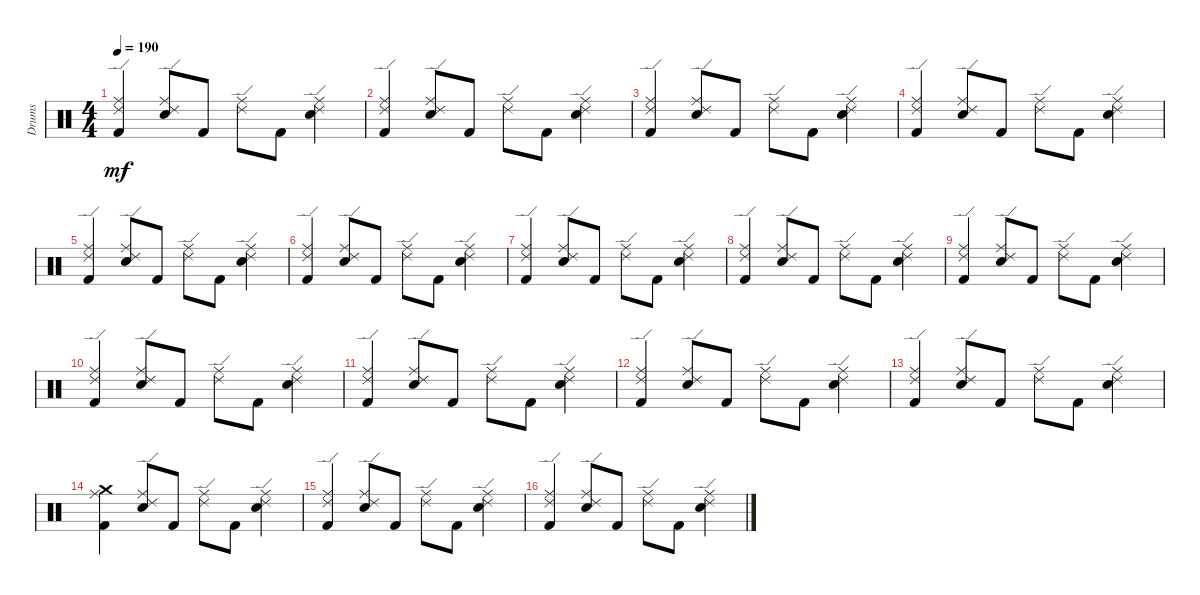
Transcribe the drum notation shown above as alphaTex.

\track ("Drums" "Drums") {instrument percussion}
\staff {score}
\articulation defaults
\ts (4 4)
\tempo 190
\clef neutral
\ks c
("Ride (edge) 2" "Ride (middle)" "Kick (hit) 2").4{dy mf} ("Ride (edge) 2" "Ride (middle)" "Snare (hit) 2").8 "Kick (hit) 2".8 ("Ride (edge) 2" "Ride (middle)").8 "Kick (hit) 2".8 ("Ride (edge) 2" "Ride (middle)" "Snare (hit) 2").4 |
("Ride (edge) 2" "Ride (middle)" "Kick (hit) 2").4 ("Ride (edge) 2" "Ride (middle)" "Snare (hit) 2").8 "Kick (hit) 2".8 ("Ride (edge) 2" "Ride (middle)").8 "Kick (hit) 2".8 ("Ride (edge) 2" "Ride (middle)" "Snare (hit) 2").4 |
("Ride (edge) 2" "Ride (middle)" "Kick (hit) 2").4 ("Ride (edge) 2" "Ride (middle)" "Snare (hit) 2").8 "Kick (hit) 2".8 ("Ride (edge) 2" "Ride (middle)").8 "Kick (hit) 2".8 ("Ride (edge) 2" "Ride (middle)" "Snare (hit) 2").4 |
("Ride (edge) 2" "Ride (middle)" "Kick (hit) 2").4 ("Ride (edge) 2" "Ride (middle)" "Snare (hit) 2").8 "Kick (hit) 2".8 ("Ride (edge) 2" "Ride (middle)").8 "Kick (hit) 2".8 ("Ride (edge) 2" "Ride (middle)" "Snare (hit) 2").4 |
("Ride (edge) 2" "Ride (middle)" "Kick (hit) 2").4 ("Ride (edge) 2" "Ride (middle)" "Snare (hit) 2").8 "Kick (hit) 2".8 ("Ride (edge) 2" "Ride (middle)").8 "Kick (hit) 2".8 ("Ride (edge) 2" "Ride (middle)" "Snare (hit) 2").4 |
("Ride (edge) 2" "Ride (middle)" "Kick (hit) 2").4 ("Ride (edge) 2" "Ride (middle)" "Snare (hit) 2").8 "Kick (hit) 2".8 ("Ride (edge) 2" "Ride (middle)").8 "Kick (hit) 2".8 ("Ride (edge) 2" "Ride (middle)" "Snare (hit) 2").4 |
("Ride (edge) 2" "Ride (middle)" "Kick (hit) 2").4 ("Ride (edge) 2" "Ride (middle)" "Snare (hit) 2").8 "Kick (hit) 2".8 ("Ride (edge) 2" "Ride (middle)").8 "Kick (hit) 2".8 ("Ride (edge) 2" "Ride (middle)" "Snare (hit) 2").4 |
("Ride (edge) 2" "Ride (middle)" "Kick (hit) 2").4 ("Ride (edge) 2" "Ride (middle)" "Snare (hit) 2").8 "Kick (hit) 2".8 ("Ride (edge) 2" "Ride (middle)").8 "Kick (hit) 2".8 ("Ride (edge) 2" "Ride (middle)" "Snare (hit) 2").4 |
("Ride (edge) 2" "Ride (middle)" "Kick (hit) 2").4 ("Ride (edge) 2" "Ride (middle)" "Snare (hit) 2").8 "Kick (hit) 2".8 ("Ride (edge) 2" "Ride (middle)").8 "Kick (hit) 2".8 ("Ride (edge) 2" "Ride (middle)" "Snare (hit) 2").4 |
("Ride (edge) 2" "Ride (middle)" "Kick (hit) 2").4 ("Ride (edge) 2" "Ride (middle)" "Snare (hit) 2").8 "Kick (hit) 2".8 ("Ride (edge) 2" "Ride (middle)").8 "Kick (hit) 2".8 ("Ride (edge) 2" "Ride (middle)" "Snare (hit) 2").4 |
("Ride (edge) 2" "Ride (middle)" "Kick (hit) 2").4 ("Ride (edge) 2" "Ride (middle)" "Snare (hit) 2").8 "Kick (hit) 2".8 ("Ride (edge) 2" "Ride (middle)").8 "Kick (hit) 2".8 ("Ride (edge) 2" "Ride (middle)" "Snare (hit) 2").4 |
("Ride (edge) 2" "Ride (middle)" "Kick (hit) 2").4 ("Ride (edge) 2" "Ride (middle)" "Snare (hit) 2").8 "Kick (hit) 2".8 ("Ride (edge) 2" "Ride (middle)").8 "Kick (hit) 2".8 ("Ride (edge) 2" "Ride (middle)" "Snare (hit) 2").4 |
("Ride (edge) 2" "Ride (middle)" "Kick (hit) 2").4 ("Ride (edge) 2" "Ride (middle)" "Snare (hit) 2").8 "Kick (hit) 2".8 ("Ride (edge) 2" "Ride (middle)").8 "Kick (hit) 2".8 ("Ride (edge) 2" "Ride (middle)" "Snare (hit) 2").4 |
("Crash medium (hit)" "Ride (middle)" "Kick (hit) 2").4 ("Ride (edge) 2" "Ride (middle)" "Snare (hit) 2").8 "Kick (hit) 2".8 ("Ride (edge) 2" "Ride (middle)").8 "Kick (hit) 2".8 ("Ride (edge) 2" "Ride (middle)" "Snare (hit) 2").4 |
("Ride (edge) 2" "Ride (middle)" "Kick (hit) 2").4 ("Ride (edge) 2" "Ride (middle)" "Snare (hit) 2").8 "Kick (hit) 2".8 ("Ride (edge) 2" "Ride (middle)").8 "Kick (hit) 2".8 ("Ride (edge) 2" "Ride (middle)" "Snare (hit) 2").4 |
("Ride (edge) 2" "Ride (middle)" "Kick (hit) 2").4 ("Ride (edge) 2" "Ride (middle)" "Snare (hit) 2").8 "Kick (hit) 2".8 ("Ride (edge) 2" "Ride (middle)").8 "Kick (hit) 2".8 ("Ride (edge) 2" "Ride (middle)" "Snare (hit) 2").4
